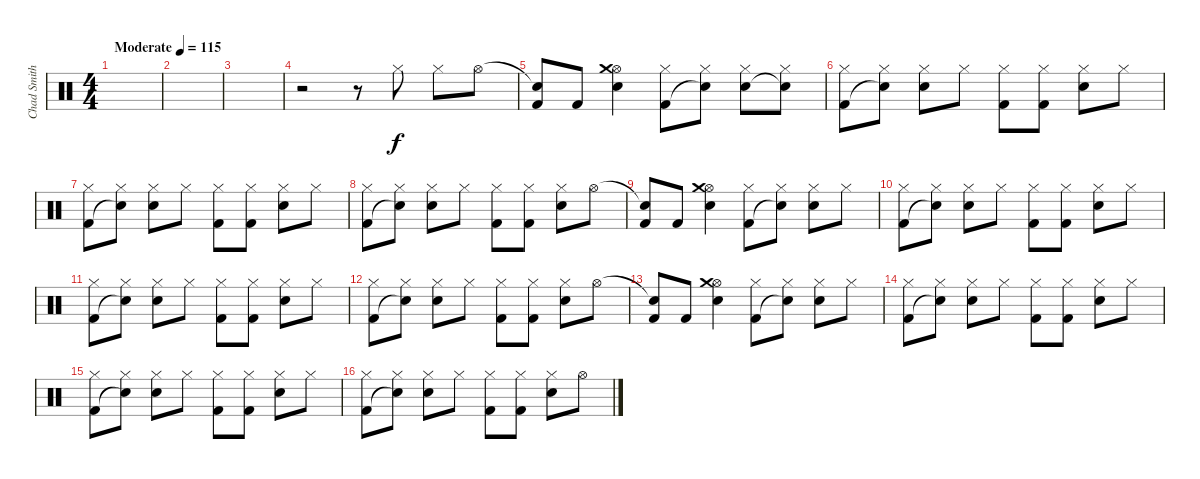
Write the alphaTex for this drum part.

\track ("Chad Smith" "Chad Smith") {instrument percussion}
\staff {score}
\articulation defaults
\ts (4 4)
\tempo (115 "Moderate")
\clef neutral
\ks c
|
|
|
r.2 r.8 "Hi-Hat (closed)".8 "Hi-Hat (closed)".8 "Hi-Hat (open)".8 |
("Snare (hit)"{t} "Kick (hit) 2").8 "Kick (hit) 2".8 ("Hi-Hat (open)" "Crash medium (hit)" "Electric Snare (hit)").4 ("Hi-Hat (closed)" "Kick (hit) 2").8 ("Hi-Hat (closed)" "Snare (hit)"{t}).8 ("Hi-Hat (closed)" "Electric Snare (hit)").8 ("Hi-Hat (closed)" "Snare (hit)"{t}).8 |
("Hi-Hat (closed)" "Kick (hit) 2").8 ("Hi-Hat (closed)" "Snare (hit)"{t}).8 ("Hi-Hat (closed)" "Electric Snare (hit)").8 "Hi-Hat (closed)".8 ("Hi-Hat (closed)" "Kick (hit) 2").8 ("Hi-Hat (closed)" "Kick (hit) 2").8 ("Hi-Hat (closed)" "Electric Snare (hit)").8 "Hi-Hat (closed)".8 |
("Hi-Hat (closed)" "Kick (hit) 2").8 ("Hi-Hat (closed)" "Snare (hit)"{t}).8 ("Hi-Hat (closed)" "Electric Snare (hit)").8 "Hi-Hat (closed)".8 ("Hi-Hat (closed)" "Kick (hit) 2").8 ("Hi-Hat (closed)" "Kick (hit) 2").8 ("Hi-Hat (closed)" "Electric Snare (hit)").8 "Hi-Hat (closed)".8 |
("Hi-Hat (closed)" "Kick (hit) 2").8 ("Hi-Hat (closed)" "Snare (hit)"{t}).8 ("Hi-Hat (closed)" "Electric Snare (hit)").8 "Hi-Hat (closed)".8 ("Hi-Hat (closed)" "Kick (hit) 2").8 ("Hi-Hat (closed)" "Kick (hit) 2").8 ("Hi-Hat (closed)" "Electric Snare (hit)").8 "Hi-Hat (open)".8 |
("Snare (hit)"{t} "Kick (hit) 2").8 "Kick (hit) 2".8 ("Hi-Hat (open)" "Crash medium (hit)" "Electric Snare (hit)").4 ("Hi-Hat (closed)" "Kick (hit) 2").8 ("Hi-Hat (closed)" "Snare (hit)"{t}).8 ("Hi-Hat (closed)" "Electric Snare (hit)").8 "Hi-Hat (closed)".8 |
("Hi-Hat (closed)" "Kick (hit) 2").8 ("Hi-Hat (closed)" "Snare (hit)"{t}).8 ("Hi-Hat (closed)" "Electric Snare (hit)").8 "Hi-Hat (closed)".8 ("Hi-Hat (closed)" "Kick (hit) 2").8 ("Hi-Hat (closed)" "Kick (hit) 2").8 ("Hi-Hat (closed)" "Electric Snare (hit)").8 "Hi-Hat (closed)".8 |
("Hi-Hat (closed)" "Kick (hit) 2").8 ("Hi-Hat (closed)" "Snare (hit)"{t}).8 ("Hi-Hat (closed)" "Electric Snare (hit)").8 "Hi-Hat (closed)".8 ("Hi-Hat (closed)" "Kick (hit) 2").8 ("Hi-Hat (closed)" "Kick (hit) 2").8 ("Hi-Hat (closed)" "Electric Snare (hit)").8 "Hi-Hat (closed)".8 |
("Hi-Hat (closed)" "Kick (hit) 2").8 ("Hi-Hat (closed)" "Snare (hit)"{t}).8 ("Hi-Hat (closed)" "Electric Snare (hit)").8 "Hi-Hat (closed)".8 ("Hi-Hat (closed)" "Kick (hit) 2").8 ("Hi-Hat (closed)" "Kick (hit) 2").8 ("Hi-Hat (closed)" "Electric Snare (hit)").8 "Hi-Hat (open)".8 |
("Snare (hit)"{t} "Kick (hit) 2").8 "Kick (hit) 2".8 ("Hi-Hat (open)" "Crash medium (hit)" "Electric Snare (hit)").4 ("Hi-Hat (closed)" "Kick (hit) 2").8 ("Hi-Hat (closed)" "Snare (hit)"{t}).8 ("Hi-Hat (closed)" "Electric Snare (hit)").8 "Hi-Hat (closed)".8 |
("Hi-Hat (closed)" "Kick (hit) 2").8 ("Hi-Hat (closed)" "Snare (hit)"{t}).8 ("Hi-Hat (closed)" "Electric Snare (hit)").8 "Hi-Hat (closed)".8 ("Hi-Hat (closed)" "Kick (hit) 2").8 ("Hi-Hat (closed)" "Kick (hit) 2").8 ("Hi-Hat (closed)" "Electric Snare (hit)").8 "Hi-Hat (closed)".8 |
("Hi-Hat (closed)" "Kick (hit) 2").8 ("Hi-Hat (closed)" "Snare (hit)"{t}).8 ("Hi-Hat (closed)" "Electric Snare (hit)").8 "Hi-Hat (closed)".8 ("Hi-Hat (closed)" "Kick (hit) 2").8 ("Hi-Hat (closed)" "Kick (hit) 2").8 ("Hi-Hat (closed)" "Electric Snare (hit)").8 "Hi-Hat (closed)".8 |
("Hi-Hat (closed)" "Kick (hit) 2").8 ("Hi-Hat (closed)" "Snare (hit)"{t}).8 ("Hi-Hat (closed)" "Electric Snare (hit)").8 "Hi-Hat (closed)".8 ("Hi-Hat (closed)" "Kick (hit) 2").8 ("Hi-Hat (closed)" "Kick (hit) 2").8 ("Hi-Hat (closed)" "Electric Snare (hit)").8 "Hi-Hat (open)".8
